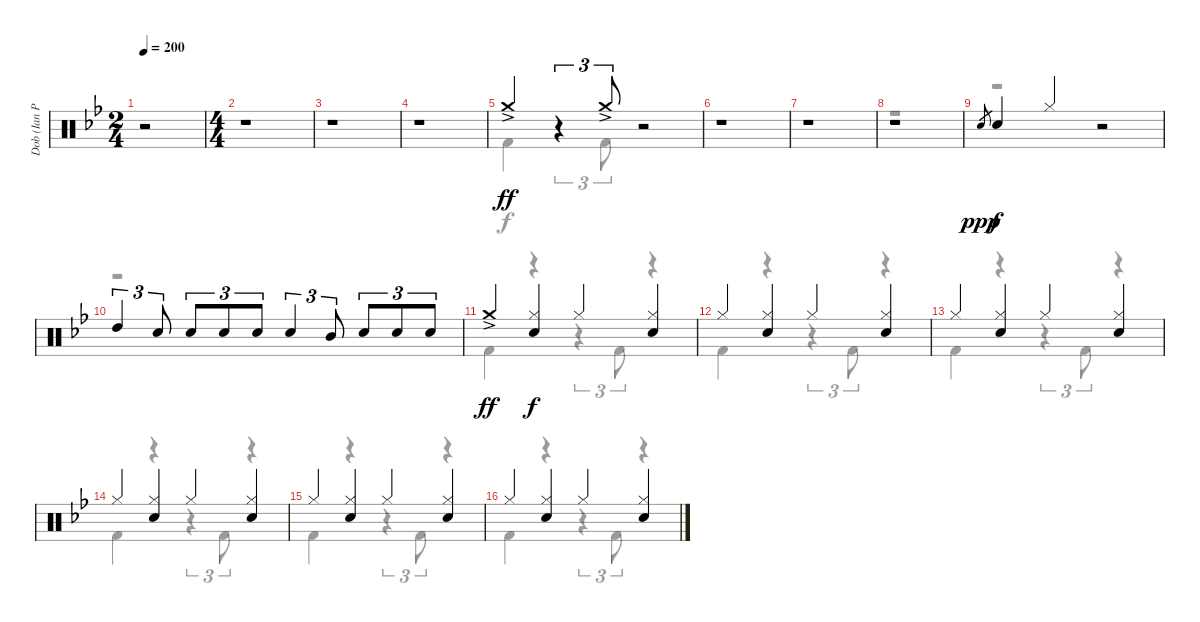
\track ("Dob (Ian Paice)" "Dob (Ian P") {instrument percussion}
\staff {score}
\articulation defaults
\voice
\ts (2 4)
\tempo 200
\clef neutral
\ks bb
r.2{dy ff} |
\ts (4 4)
r.1 |
r.1 |
r.1 |
"Crash medium (hit)"{ac}.4 r.4{tu (3 2)} "Crash medium (hit)"{ac}.8{tu (3 2)} r.2 |
r.1 |
r.1 |
r.1 |
"Electric Snare (hit)".8{gr dy ppp} "Electric Snare (hit)".4{dy f} "Hi-Hat (closed)".4 r.2 |
"High Tom (hit)".4{tu (3 2)} "Electric Snare (hit)".8{tu (3 2)} "Electric Snare (hit)".8{tu (3 2)} "Electric Snare (hit)".8{tu (3 2)} "Electric Snare (hit)".8{tu (3 2)} "Electric Snare (hit)".4{tu (3 2)} "Mid Tom (hit)".8{tu (3 2)} "Electric Snare (hit)".8{tu (3 2)} "Electric Snare (hit)".8{tu (3 2)} "Electric Snare (hit)".8{tu (3 2)} |
"Crash medium (hit)"{ac}.4{dy ff} ("Hi-Hat (closed)" "Electric Snare (hit)").4{dy f} "Hi-Hat (closed)".4 ("Hi-Hat (closed)" "Electric Snare (hit)").4 |
"Hi-Hat (closed)".4 ("Hi-Hat (closed)" "Electric Snare (hit)").4 "Hi-Hat (closed)".4 ("Hi-Hat (closed)" "Electric Snare (hit)").4 |
"Hi-Hat (closed)".4 ("Hi-Hat (closed)" "Electric Snare (hit)").4 "Hi-Hat (closed)".4 ("Hi-Hat (closed)" "Electric Snare (hit)").4 |
"Hi-Hat (closed)".4 ("Hi-Hat (closed)" "Electric Snare (hit)").4 "Hi-Hat (closed)".4 ("Hi-Hat (closed)" "Electric Snare (hit)").4 |
"Hi-Hat (closed)".4 ("Hi-Hat (closed)" "Electric Snare (hit)").4 "Hi-Hat (closed)".4 ("Hi-Hat (closed)" "Electric Snare (hit)").4 |
"Hi-Hat (closed)".4 ("Hi-Hat (closed)" "Electric Snare (hit)").4 "Hi-Hat (closed)".4 ("Hi-Hat (closed)" "Electric Snare (hit)").4
\voice
\clef neutral
\ottava regular
\simile none
\ks bb
r.2{dy f} |
r.1 |
r.1 |
r.1 |
"Kick (hit) 2".4 r.4{tu (3 2)} "Kick (hit) 2".8{tu (3 2)} r.2 |
r.1 |
r.1 |
r.1 |
r.1 |
r.1 |
"Kick (hit) 2".4 r.4 r.4{tu (3 2)} "Kick (hit) 2".8{tu (3 2)} r.4 |
"Kick (hit) 2".4 r.4 r.4{tu (3 2)} "Kick (hit) 2".8{tu (3 2)} r.4 |
"Kick (hit) 2".4 r.4 r.4{tu (3 2)} "Kick (hit) 2".8{tu (3 2)} r.4 |
"Kick (hit) 2".4 r.4 r.4{tu (3 2)} "Kick (hit) 2".8{tu (3 2)} r.4 |
"Kick (hit) 2".4 r.4 r.4{tu (3 2)} "Kick (hit) 2".8{tu (3 2)} r.4 |
"Kick (hit) 2".4 r.4 r.4{tu (3 2)} "Kick (hit) 2".8{tu (3 2)} r.4
